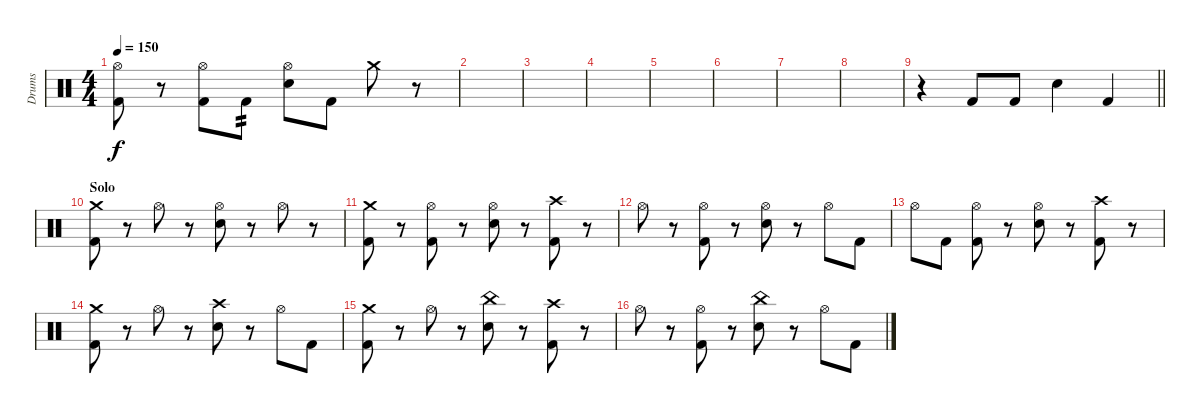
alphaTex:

\track ("Drums" "Drums") {instrument percussion}
\staff {score}
\articulation defaults
\ts (4 4)
\tempo 150
\clef neutral
\ks c
("Hi-Hat (open)" "Kick (hit) 2").8{dy f} r.8 ("Hi-Hat (open)" "Kick (hit) 2").8 "Kick (hit) 2".8{tp 2} ("Hi-Hat (open)" "Electric Snare (hit)").8 "Kick (hit) 2".8 "Crash medium (hit)".8 r.8 |
|
|
|
|
|
|
|
\barLineRight lightlight
r.4 "Kick (hit) 2".8 "Kick (hit) 2".8 "Electric Snare (hit)".4 "Kick (hit) 2".4 |
\section ("" "Solo")
("Crash medium (hit)" "Kick (hit) 2").8 r.8 "Hi-Hat (open)".8 r.8 ("Hi-Hat (open)" "Electric Snare (hit)").8 r.8 "Hi-Hat (open)".8 r.8 |
("Crash medium (hit)" "Kick (hit) 2").8 r.8 ("Hi-Hat (open)" "Kick (hit) 2").8 r.8 ("Hi-Hat (open)" "Electric Snare (hit)").8 r.8 ("Crash high (hit)" "Kick (hit) 2").8 r.8 |
"Hi-Hat (open)".8 r.8 ("Hi-Hat (open)" "Kick (hit) 2").8 r.8 ("Hi-Hat (open)" "Electric Snare (hit)").8 r.8 "Hi-Hat (open)".8 "Kick (hit) 2".8 |
"Hi-Hat (open)".8 "Kick (hit) 2".8 ("Hi-Hat (open)" "Kick (hit) 2").8 r.8 ("Hi-Hat (open)" "Electric Snare (hit)").8 r.8 ("Crash high (hit)" "Kick (hit) 2").8 r.8 |
("Crash medium (hit)" "Kick (hit) 2").8 r.8 "Hi-Hat (open)".8 r.8 ("Crash high (hit)" "Electric Snare (hit)").8 r.8 "Hi-Hat (open)".8 "Kick (hit) 2".8 |
("Crash medium (hit)" "Kick (hit) 2").8 r.8 "Hi-Hat (open)".8 r.8 ("China (hit)" "Electric Snare (hit)").8 r.8 ("Crash high (hit)" "Kick (hit) 2").8 r.8 |
"Hi-Hat (open)".8 r.8 ("Hi-Hat (open)" "Kick (hit) 2").8 r.8 ("China (hit)" "Electric Snare (hit)").8 r.8 "Hi-Hat (open)".8 "Kick (hit) 2".8
